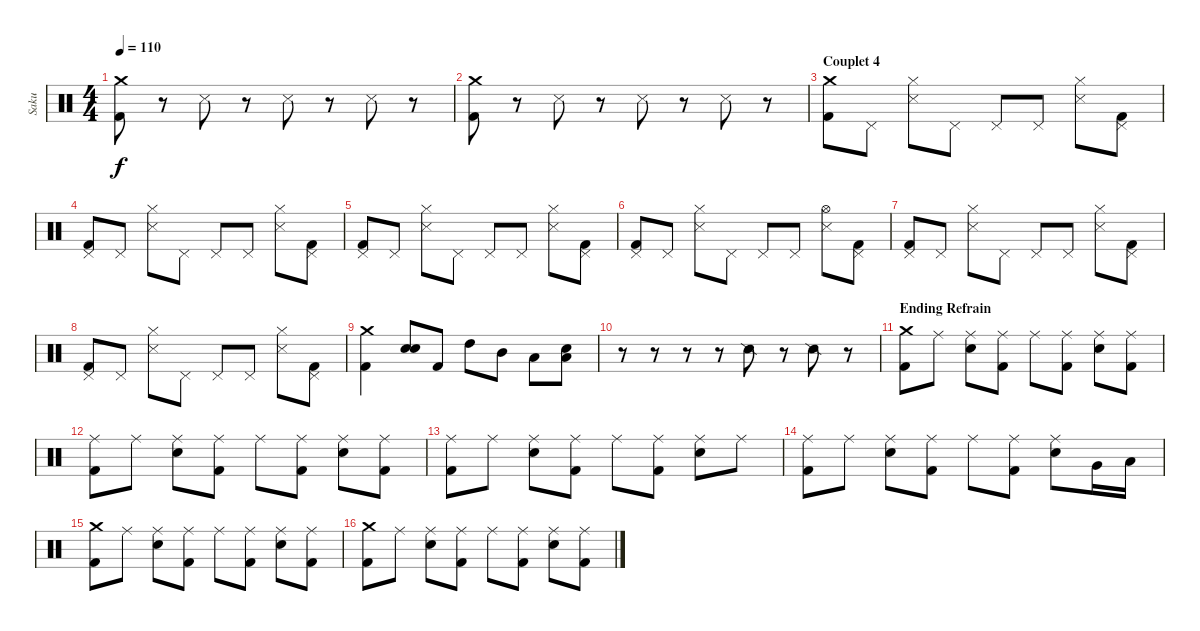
\track ("Saku" "Saku") {instrument percussion}
\staff {score}
\articulation defaults
\ts (4 4)
\tempo 110
\clef neutral
\ks c
("Crash medium (hit)" "Kick (hit) 2").8{dy f} r.8 "Snare (side stick) 3".8 r.8 "Snare (side stick) 3".8 r.8 "Snare (side stick) 3".8 r.8 |
("Crash medium (hit)" "Kick (hit) 2").8 r.8 "Snare (side stick) 3".8 r.8 "Snare (side stick) 3".8 r.8 "Snare (side stick) 3".8 r.8 |
\section ("" "Couplet 4")
("Crash medium (hit)" "Kick (hit) 2").8 "Pedal Hi-Hat (hit)".8 ("Hi-Hat (closed)" "Snare (side stick) 3").8 "Pedal Hi-Hat (hit)".8 "Pedal Hi-Hat (hit)".8 "Pedal Hi-Hat (hit)".8 ("Hi-Hat (closed)" "Snare (side stick) 3").8 ("Pedal Hi-Hat (hit)" "Kick (hit) 2").8 |
("Pedal Hi-Hat (hit)" "Kick (hit) 2").8 "Pedal Hi-Hat (hit)".8 ("Hi-Hat (closed)" "Snare (side stick) 3").8 "Pedal Hi-Hat (hit)".8 "Pedal Hi-Hat (hit)".8 "Pedal Hi-Hat (hit)".8 ("Hi-Hat (closed)" "Snare (side stick) 3").8 ("Pedal Hi-Hat (hit)" "Kick (hit) 2").8 |
("Pedal Hi-Hat (hit)" "Kick (hit) 2").8 "Pedal Hi-Hat (hit)".8 ("Hi-Hat (closed)" "Snare (side stick) 3").8 "Pedal Hi-Hat (hit)".8 "Pedal Hi-Hat (hit)".8 "Pedal Hi-Hat (hit)".8 ("Hi-Hat (closed)" "Snare (side stick) 3").8 ("Pedal Hi-Hat (hit)" "Kick (hit) 2").8 |
("Pedal Hi-Hat (hit)" "Kick (hit) 2").8 "Pedal Hi-Hat (hit)".8 ("Hi-Hat (closed)" "Snare (side stick) 3").8 "Pedal Hi-Hat (hit)".8 "Pedal Hi-Hat (hit)".8 "Pedal Hi-Hat (hit)".8 ("Hi-Hat (open)" "Snare (side stick) 3").8 ("Pedal Hi-Hat (hit)" "Kick (hit) 2").8 |
("Pedal Hi-Hat (hit)" "Kick (hit) 2").8 "Pedal Hi-Hat (hit)".8 ("Hi-Hat (closed)" "Snare (side stick) 3").8 "Pedal Hi-Hat (hit)".8 "Pedal Hi-Hat (hit)".8 "Pedal Hi-Hat (hit)".8 ("Hi-Hat (closed)" "Snare (side stick) 3").8 ("Pedal Hi-Hat (hit)" "Kick (hit) 2").8 |
("Pedal Hi-Hat (hit)" "Kick (hit) 2").8 "Pedal Hi-Hat (hit)".8 ("Hi-Hat (closed)" "Snare (side stick) 3").8 "Pedal Hi-Hat (hit)".8 "Pedal Hi-Hat (hit)".8 "Pedal Hi-Hat (hit)".8 ("Hi-Hat (closed)" "Snare (side stick) 3").8 ("Pedal Hi-Hat (hit)" "Kick (hit) 2").8 |
("Crash medium (hit)" "Kick (hit) 2").4 ("Electric Snare (hit)" "Electric Snare (hit)").8{bu 60} "Kick (hit) 2".8 "High Tom (hit)".8 "Mid Tom (hit)".8 "Low Tom (hit)".8 ("Electric Snare (hit)" "Low Floor Tom (hit)").8 |
r.8 r.8 r.8 r.8 "Snare (side stick) 2".8 r.8 "Snare (side stick) 2".8 r.8 |
\section ("" "Ending Refrain")
("Crash medium (hit)" "Kick (hit) 2").8 "Ride (middle)".8 ("Ride (middle)" "Electric Snare (hit)").8 ("Ride (middle)" "Kick (hit) 2").8 "Ride (middle)".8 ("Ride (middle)" "Kick (hit) 2").8 ("Ride (middle)" "Electric Snare (hit)").8 ("Ride (middle)" "Kick (hit) 2").8 |
("Ride (middle)" "Kick (hit) 2").8 "Ride (middle)".8 ("Ride (middle)" "Electric Snare (hit)").8 ("Ride (middle)" "Kick (hit) 2").8 "Ride (middle)".8 ("Ride (middle)" "Kick (hit) 2").8 ("Ride (middle)" "Electric Snare (hit)").8 ("Ride (middle)" "Kick (hit) 2").8 |
("Ride (middle)" "Kick (hit) 2").8 "Ride (middle)".8 ("Ride (middle)" "Electric Snare (hit)").8 ("Ride (middle)" "Kick (hit) 2").8 "Ride (middle)".8 ("Ride (middle)" "Kick (hit) 2").8 ("Ride (middle)" "Electric Snare (hit)").8 "Ride (middle)".8 |
("Ride (middle)" "Kick (hit) 2").8 "Ride (middle)".8 ("Ride (middle)" "Electric Snare (hit)").8 ("Ride (middle)" "Kick (hit) 2").8 "Ride (middle)".8 ("Ride (middle)" "Kick (hit) 2").8 ("Ride (middle)" "Electric Snare (hit)").8 "Very Low Tom (hit)".16 "Low Floor Tom (hit)".16 |
("Crash medium (hit)" "Kick (hit) 2").8 "Ride (middle)".8 ("Ride (middle)" "Electric Snare (hit)").8 ("Ride (middle)" "Kick (hit) 2").8 "Ride (middle)".8 ("Ride (middle)" "Kick (hit) 2").8 ("Ride (middle)" "Electric Snare (hit)").8 ("Ride (middle)" "Kick (hit) 2").8 |
("Crash medium (hit)" "Kick (hit) 2").8 "Ride (middle)".8 ("Ride (middle)" "Electric Snare (hit)").8 ("Ride (middle)" "Kick (hit) 2").8 "Ride (middle)".8 ("Ride (middle)" "Kick (hit) 2").8 ("Ride (middle)" "Electric Snare (hit)").8 ("Ride (middle)" "Kick (hit) 2").8
